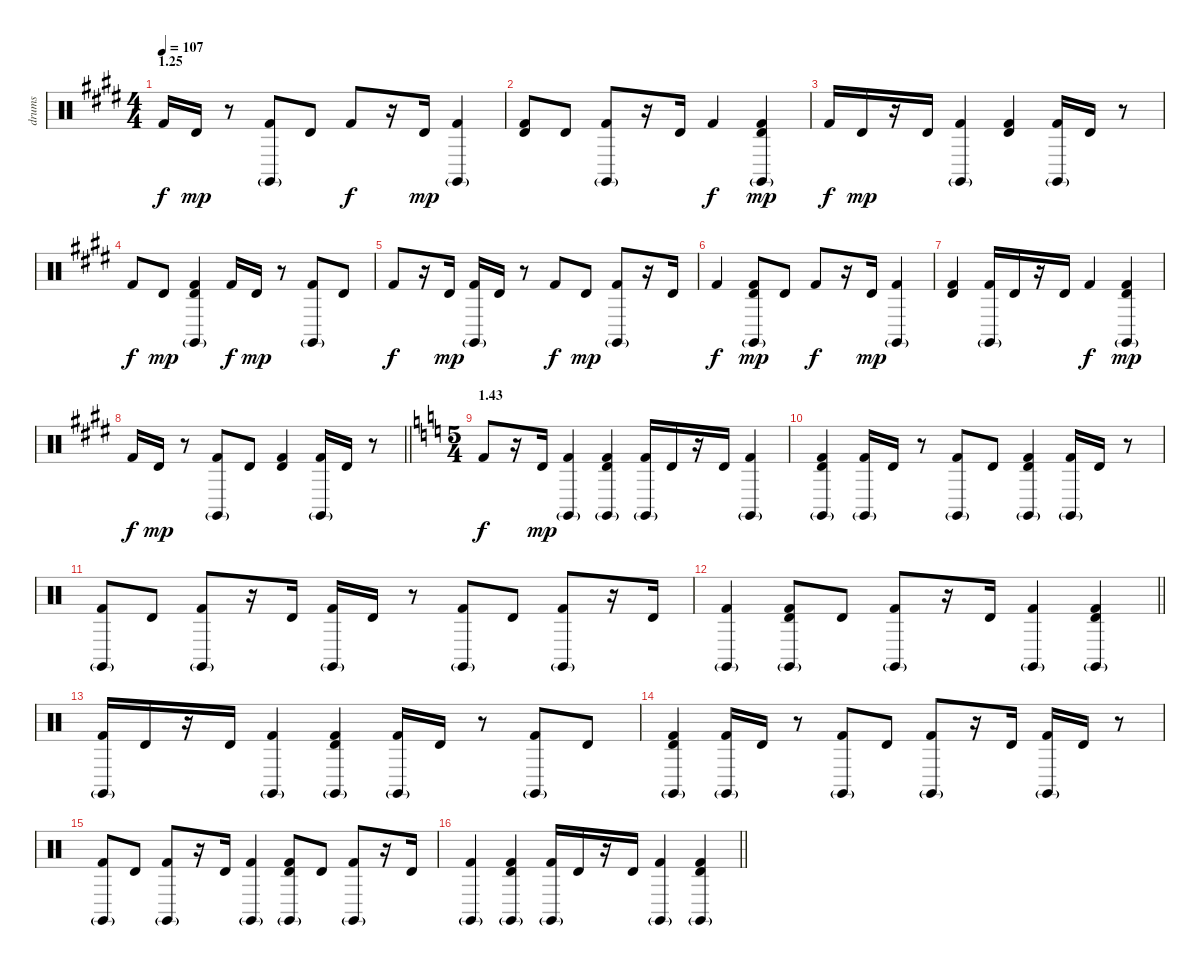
\track ("drums" "drums") {instrument percussion}
\staff {score}
\articulation defaults
\ts (4 4)
\section ("" "1.25")
\tempo 107
\clef neutral
\ks c#minor "Kick (hit) 2".16{dy f} "Timbale high (hit)".16{dy mp}
r.8 ("Claves (hit)"{g} "Kick (hit) 2").8 "Timbale high (hit)".8 "Kick (hit) 2".8{dy f} r.16 "Timbale high (hit)".16{dy mp} ("Claves (hit)"{g} "Kick (hit) 2").4 |
("Timbale high (hit)" "Kick (hit) 2").8 "Timbale high (hit)".8 ("Claves (hit)"{g} "Kick (hit) 2").8 r.16 "Timbale high (hit)".16 "Kick (hit) 2".4{dy f} ("Timbale high (hit)" "Claves (hit)"{g} "Kick (hit) 2").4{dy mp} |
"Kick (hit) 2".16{dy f} "Timbale high (hit)".16{dy mp} r.16 "Timbale high (hit)".16 ("Claves (hit)"{g} "Kick (hit) 2").4 ("Timbale high (hit)" "Kick (hit) 2").4 ("Claves (hit)"{g} "Kick (hit) 2").16 "Timbale high (hit)".16 r.8 |
"Kick (hit) 2".8{dy f} "Timbale high (hit)".8{dy mp} ("Timbale high (hit)" "Claves (hit)"{g} "Kick (hit) 2").4 "Kick (hit) 2".16{dy f} "Timbale high (hit)".16{dy mp} r.8 ("Claves (hit)"{g} "Kick (hit) 2").8 "Timbale high (hit)".8 |
"Kick (hit) 2".8{dy f} r.16 "Timbale high (hit)".16{dy mp} ("Claves (hit)"{g} "Kick (hit) 2").16 "Timbale high (hit)".16 r.8 "Kick (hit) 2".8{dy f} "Timbale high (hit)".8{dy mp} ("Claves (hit)"{g} "Kick (hit) 2").8 r.16 "Timbale high (hit)".16 |
"Kick (hit) 2".4{dy f} ("Timbale high (hit)" "Claves (hit)"{g} "Kick (hit) 2").8{dy mp} "Timbale high (hit)".8 "Kick (hit) 2".8{dy f} r.16 "Timbale high (hit)".16{dy mp} ("Claves (hit)"{g} "Kick (hit) 2").4 |
("Timbale high (hit)" "Kick (hit) 2").4 ("Claves (hit)"{g} "Kick (hit) 2").16 "Timbale high (hit)".16 r.16 "Timbale high (hit)".16 "Kick (hit) 2".4{dy f} ("Timbale high (hit)" "Claves (hit)"{g} "Kick (hit) 2").4{dy mp} |
\barLineRight lightlight "Kick (hit) 2".16{dy f} "Timbale high (hit)".16{dy mp}
r.8 ("Claves (hit)"{g} "Kick (hit) 2").8 "Timbale high (hit)".8 ("Timbale high (hit)" "Kick (hit) 2").4 ("Claves (hit)"{g} "Kick (hit) 2").16 "Timbale high (hit)".16 r.8 |
\ts (5 4)
\section ("" "1.43")
\ks c "Kick (hit) 2".8{dy f}
r.16 "Timbale high (hit)".16{dy mp} ("Claves (hit)"{g} "Kick (hit) 2").4 ("Timbale high (hit)" "Claves (hit)"{g} "Kick (hit) 2").4 ("Claves (hit)"{g} "Kick (hit) 2").16 "Timbale high (hit)".16 r.16 "Timbale high (hit)".16 ("Claves (hit)"{g} "Kick (hit) 2").4 |
("Timbale high (hit)" "Claves (hit)"{g} "Kick (hit) 2").4 ("Claves (hit)"{g} "Kick (hit) 2").16 "Timbale high (hit)".16 r.8 ("Claves (hit)"{g} "Kick (hit) 2").8 "Timbale high (hit)".8 ("Timbale high (hit)" "Claves (hit)"{g} "Kick (hit) 2").4 ("Claves (hit)"{g} "Kick (hit) 2").16 "Timbale high (hit)".16 r.8 |
("Claves (hit)"{g} "Kick (hit) 2").8 "Timbale high (hit)".8 ("Claves (hit)"{g} "Kick (hit) 2").8 r.16 "Timbale high (hit)".16 ("Claves (hit)"{g} "Kick (hit) 2").16 "Timbale high (hit)".16 r.8 ("Claves (hit)"{g} "Kick (hit) 2").8 "Timbale high (hit)".8 ("Claves (hit)"{g} "Kick (hit) 2").8 r.16 "Timbale high (hit)".16 |
\barLineRight lightlight
("Claves (hit)"{g} "Kick (hit) 2").4 ("Timbale high (hit)" "Claves (hit)"{g} "Kick (hit) 2").8 "Timbale high (hit)".8 ("Claves (hit)"{g} "Kick (hit) 2").8 r.16 "Timbale high (hit)".16 ("Claves (hit)"{g} "Kick (hit) 2").4 ("Timbale high (hit)" "Claves (hit)"{g} "Kick (hit) 2").4 |
("Claves (hit)"{g} "Kick (hit) 2").16 "Timbale high (hit)".16 r.16 "Timbale high (hit)".16 ("Claves (hit)"{g} "Kick (hit) 2").4 ("Timbale high (hit)" "Claves (hit)"{g} "Kick (hit) 2").4 ("Claves (hit)"{g} "Kick (hit) 2").16 "Timbale high (hit)".16 r.8 ("Claves (hit)"{g} "Kick (hit) 2").8 "Timbale high (hit)".8 |
("Timbale high (hit)" "Claves (hit)"{g} "Kick (hit) 2").4 ("Claves (hit)"{g} "Kick (hit) 2").16 "Timbale high (hit)".16 r.8 ("Claves (hit)"{g} "Kick (hit) 2").8 "Timbale high (hit)".8 ("Claves (hit)"{g} "Kick (hit) 2").8 r.16 "Timbale high (hit)".16 ("Claves (hit)"{g} "Kick (hit) 2").16 "Timbale high (hit)".16 r.8 |
("Claves (hit)"{g} "Kick (hit) 2").8 "Timbale high (hit)".8 ("Claves (hit)"{g} "Kick (hit) 2").8 r.16 "Timbale high (hit)".16 ("Claves (hit)"{g} "Kick (hit) 2").4 ("Timbale high (hit)" "Claves (hit)"{g} "Kick (hit) 2").8 "Timbale high (hit)".8 ("Claves (hit)"{g} "Kick (hit) 2").8 r.16 "Timbale high (hit)".16 |
\barLineRight lightlight
("Claves (hit)"{g} "Kick (hit) 2").4 ("Timbale high (hit)" "Claves (hit)"{g} "Kick (hit) 2").4 ("Claves (hit)"{g} "Kick (hit) 2").16 "Timbale high (hit)".16 r.16 "Timbale high (hit)".16 ("Claves (hit)"{g} "Kick (hit) 2").4 ("Timbale high (hit)" "Claves (hit)"{g} "Kick (hit) 2").4
